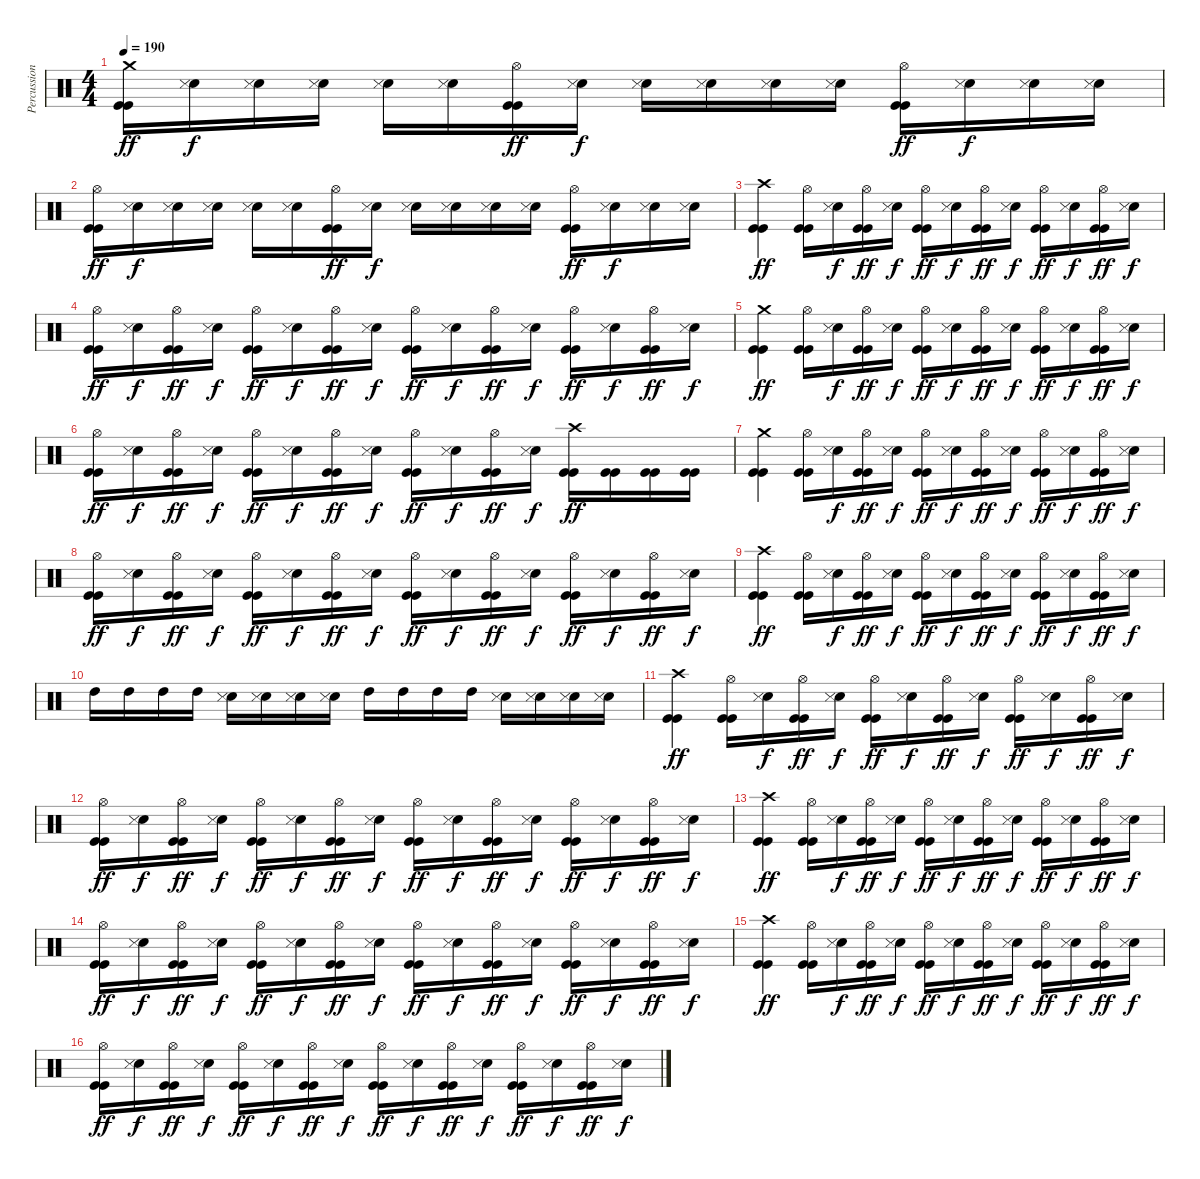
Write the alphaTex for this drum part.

\track ("Percussion" "Percussion") {instrument percussion}
\staff {score}
\articulation defaults
\ts (4 4)
\tempo 190
\clef neutral
\ks c
("Crash medium (hit)" "Kick (hit)" "Kick (hit)").16{dy ff} ("Electric Snare (hit)" "Snare (side stick) 3").16{dy f} ("Electric Snare (hit)" "Snare (side stick) 3").16 ("Electric Snare (hit)" "Snare (side stick) 3").16 ("Electric Snare (hit)" "Snare (side stick) 3").16 ("Electric Snare (hit)" "Snare (side stick) 3").16 ("Hi-Hat (open)" "Kick (hit)" "Kick (hit)").16{dy ff} ("Electric Snare (hit)" "Snare (side stick) 3").16{dy f} ("Electric Snare (hit)" "Snare (side stick) 3").16 ("Electric Snare (hit)" "Snare (side stick) 3").16 ("Electric Snare (hit)" "Snare (side stick) 3").16 ("Electric Snare (hit)" "Snare (side stick) 3").16 ("Hi-Hat (open)" "Kick (hit)" "Kick (hit)").16{dy ff} ("Electric Snare (hit)" "Snare (side stick) 3").16{dy f} ("Electric Snare (hit)" "Snare (side stick) 3").16 ("Electric Snare (hit)" "Snare (side stick) 3").16 |
("Hi-Hat (open)" "Kick (hit)" "Kick (hit)").16{dy ff} ("Electric Snare (hit)" "Snare (side stick) 3").16{dy f} ("Electric Snare (hit)" "Snare (side stick) 3").16 ("Electric Snare (hit)" "Snare (side stick) 3").16 ("Electric Snare (hit)" "Snare (side stick) 3").16 ("Electric Snare (hit)" "Snare (side stick) 3").16 ("Hi-Hat (open)" "Kick (hit)" "Kick (hit)").16{dy ff} ("Electric Snare (hit)" "Snare (side stick) 3").16{dy f} ("Electric Snare (hit)" "Snare (side stick) 3").16 ("Electric Snare (hit)" "Snare (side stick) 3").16 ("Electric Snare (hit)" "Snare (side stick) 3").16 ("Electric Snare (hit)" "Snare (side stick) 3").16 ("Hi-Hat (open)" "Kick (hit)" "Kick (hit)").16{dy ff} ("Electric Snare (hit)" "Snare (side stick) 3").16{dy f} ("Electric Snare (hit)" "Snare (side stick) 3").16 ("Electric Snare (hit)" "Snare (side stick) 3").16 |
("Crash high (hit)" "Kick (hit)" "Kick (hit)").4{dy ff} ("Hi-Hat (open)" "Kick (hit)" "Kick (hit)").16 ("Electric Snare (hit)" "Snare (side stick) 3").16{dy f} ("Hi-Hat (open)" "Kick (hit)" "Kick (hit)").16{dy ff} ("Electric Snare (hit)" "Snare (side stick) 3").16{dy f} ("Hi-Hat (open)" "Kick (hit)" "Kick (hit)").16{dy ff} ("Electric Snare (hit)" "Snare (side stick) 3").16{dy f} ("Hi-Hat (open)" "Kick (hit)" "Kick (hit)").16{dy ff} ("Electric Snare (hit)" "Snare (side stick) 3").16{dy f} ("Hi-Hat (open)" "Kick (hit)" "Kick (hit)").16{dy ff} ("Electric Snare (hit)" "Snare (side stick) 3").16{dy f} ("Hi-Hat (open)" "Kick (hit)" "Kick (hit)").16{dy ff} ("Electric Snare (hit)" "Snare (side stick) 3").16{dy f} |
("Hi-Hat (open)" "Kick (hit)" "Kick (hit)").16{dy ff} ("Electric Snare (hit)" "Snare (side stick) 3").16{dy f} ("Hi-Hat (open)" "Kick (hit)" "Kick (hit)").16{dy ff} ("Electric Snare (hit)" "Snare (side stick) 3").16{dy f} ("Hi-Hat (open)" "Kick (hit)" "Kick (hit)").16{dy ff} ("Electric Snare (hit)" "Snare (side stick) 3").16{dy f} ("Hi-Hat (open)" "Kick (hit)" "Kick (hit)").16{dy ff} ("Electric Snare (hit)" "Snare (side stick) 3").16{dy f} ("Hi-Hat (open)" "Kick (hit)" "Kick (hit)").16{dy ff} ("Electric Snare (hit)" "Snare (side stick) 3").16{dy f} ("Hi-Hat (open)" "Kick (hit)" "Kick (hit)").16{dy ff} ("Electric Snare (hit)" "Snare (side stick) 3").16{dy f} ("Hi-Hat (open)" "Kick (hit)" "Kick (hit)").16{dy ff} ("Electric Snare (hit)" "Snare (side stick) 3").16{dy f} ("Hi-Hat (open)" "Kick (hit)" "Kick (hit)").16{dy ff} ("Electric Snare (hit)" "Snare (side stick) 3").16{dy f} |
("Crash medium (hit)" "Kick (hit)" "Kick (hit)").4{dy ff} ("Hi-Hat (open)" "Kick (hit)" "Kick (hit)").16 ("Electric Snare (hit)" "Snare (side stick) 3").16{dy f} ("Hi-Hat (open)" "Kick (hit)" "Kick (hit)").16{dy ff} ("Electric Snare (hit)" "Snare (side stick) 3").16{dy f} ("Hi-Hat (open)" "Kick (hit)" "Kick (hit)").16{dy ff} ("Electric Snare (hit)" "Snare (side stick) 3").16{dy f} ("Hi-Hat (open)" "Kick (hit)" "Kick (hit)").16{dy ff} ("Electric Snare (hit)" "Snare (side stick) 3").16{dy f} ("Hi-Hat (open)" "Kick (hit)" "Kick (hit)").16{dy ff} ("Electric Snare (hit)" "Snare (side stick) 3").16{dy f} ("Hi-Hat (open)" "Kick (hit)" "Kick (hit)").16{dy ff} ("Electric Snare (hit)" "Snare (side stick) 3").16{dy f} |
("Hi-Hat (open)" "Kick (hit)" "Kick (hit)").16{dy ff} ("Electric Snare (hit)" "Snare (side stick) 3").16{dy f} ("Hi-Hat (open)" "Kick (hit)" "Kick (hit)").16{dy ff} ("Electric Snare (hit)" "Snare (side stick) 3").16{dy f} ("Hi-Hat (open)" "Kick (hit)" "Kick (hit)").16{dy ff} ("Electric Snare (hit)" "Snare (side stick) 3").16{dy f} ("Hi-Hat (open)" "Kick (hit)" "Kick (hit)").16{dy ff} ("Electric Snare (hit)" "Snare (side stick) 3").16{dy f} ("Hi-Hat (open)" "Kick (hit)" "Kick (hit)").16{dy ff} ("Electric Snare (hit)" "Snare (side stick) 3").16{dy f} ("Hi-Hat (open)" "Kick (hit)" "Kick (hit)").16{dy ff} ("Electric Snare (hit)" "Snare (side stick) 3").16{dy f} ("Crash high (hit)" "Kick (hit)" "Kick (hit)").16{dy ff} ("Kick (hit)" "Kick (hit)").16 ("Kick (hit)" "Kick (hit)").16 ("Kick (hit)" "Kick (hit)").16 |
("Crash medium (hit)" "Kick (hit)" "Kick (hit)").4 ("Hi-Hat (open)" "Kick (hit)" "Kick (hit)").16 ("Electric Snare (hit)" "Snare (side stick) 3").16{dy f} ("Hi-Hat (open)" "Kick (hit)" "Kick (hit)").16{dy ff} ("Electric Snare (hit)" "Snare (side stick) 3").16{dy f} ("Hi-Hat (open)" "Kick (hit)" "Kick (hit)").16{dy ff} ("Electric Snare (hit)" "Snare (side stick) 3").16{dy f} ("Hi-Hat (open)" "Kick (hit)" "Kick (hit)").16{dy ff} ("Electric Snare (hit)" "Snare (side stick) 3").16{dy f} ("Hi-Hat (open)" "Kick (hit)" "Kick (hit)").16{dy ff} ("Electric Snare (hit)" "Snare (side stick) 3").16{dy f} ("Hi-Hat (open)" "Kick (hit)" "Kick (hit)").16{dy ff} ("Electric Snare (hit)" "Snare (side stick) 3").16{dy f} |
("Hi-Hat (open)" "Kick (hit)" "Kick (hit)").16{dy ff} ("Electric Snare (hit)" "Snare (side stick) 3").16{dy f} ("Hi-Hat (open)" "Kick (hit)" "Kick (hit)").16{dy ff} ("Electric Snare (hit)" "Snare (side stick) 3").16{dy f} ("Hi-Hat (open)" "Kick (hit)" "Kick (hit)").16{dy ff} ("Electric Snare (hit)" "Snare (side stick) 3").16{dy f} ("Hi-Hat (open)" "Kick (hit)" "Kick (hit)").16{dy ff} ("Electric Snare (hit)" "Snare (side stick) 3").16{dy f} ("Hi-Hat (open)" "Kick (hit)" "Kick (hit)").16{dy ff} ("Electric Snare (hit)" "Snare (side stick) 3").16{dy f} ("Hi-Hat (open)" "Kick (hit)" "Kick (hit)").16{dy ff} ("Electric Snare (hit)" "Snare (side stick) 3").16{dy f} ("Hi-Hat (open)" "Kick (hit)" "Kick (hit)").16{dy ff} ("Electric Snare (hit)" "Snare (side stick) 3").16{dy f} ("Hi-Hat (open)" "Kick (hit)" "Kick (hit)").16{dy ff} ("Electric Snare (hit)" "Snare (side stick) 3").16{dy f} |
("Crash high (hit)" "Kick (hit)" "Kick (hit)").4{dy ff} ("Hi-Hat (open)" "Kick (hit)" "Kick (hit)").16 ("Electric Snare (hit)" "Snare (side stick) 3").16{dy f} ("Hi-Hat (open)" "Kick (hit)" "Kick (hit)").16{dy ff} ("Electric Snare (hit)" "Snare (side stick) 3").16{dy f} ("Hi-Hat (open)" "Kick (hit)" "Kick (hit)").16{dy ff} ("Electric Snare (hit)" "Snare (side stick) 3").16{dy f} ("Hi-Hat (open)" "Kick (hit)" "Kick (hit)").16{dy ff} ("Electric Snare (hit)" "Snare (side stick) 3").16{dy f} ("Hi-Hat (open)" "Kick (hit)" "Kick (hit)").16{dy ff} ("Electric Snare (hit)" "Snare (side stick) 3").16{dy f} ("Hi-Hat (open)" "Kick (hit)" "Kick (hit)").16{dy ff} ("Electric Snare (hit)" "Snare (side stick) 3").16{dy f} |
"High Tom (hit)".16 "High Tom (hit)".16 "High Tom (hit)".16 "High Tom (hit)".16 ("Electric Snare (hit)" "Snare (side stick) 3").16 ("Electric Snare (hit)" "Snare (side stick) 3").16 ("Electric Snare (hit)" "Snare (side stick) 3").16 ("Electric Snare (hit)" "Snare (side stick) 3").16 "High Tom (hit)".16 "High Tom (hit)".16 "High Tom (hit)".16 "High Tom (hit)".16 ("Electric Snare (hit)" "Snare (side stick) 3").16 ("Electric Snare (hit)" "Snare (side stick) 3").16 ("Electric Snare (hit)" "Snare (side stick) 3").16 ("Electric Snare (hit)" "Snare (side stick) 3").16 |
("Crash high (hit)" "Kick (hit)" "Kick (hit)").4{dy ff} ("Hi-Hat (open)" "Kick (hit)" "Kick (hit)").16 ("Electric Snare (hit)" "Snare (side stick) 3").16{dy f} ("Hi-Hat (open)" "Kick (hit)" "Kick (hit)").16{dy ff} ("Electric Snare (hit)" "Snare (side stick) 3").16{dy f} ("Hi-Hat (open)" "Kick (hit)" "Kick (hit)").16{dy ff} ("Electric Snare (hit)" "Snare (side stick) 3").16{dy f} ("Hi-Hat (open)" "Kick (hit)" "Kick (hit)").16{dy ff} ("Electric Snare (hit)" "Snare (side stick) 3").16{dy f} ("Hi-Hat (open)" "Kick (hit)" "Kick (hit)").16{dy ff} ("Electric Snare (hit)" "Snare (side stick) 3").16{dy f} ("Hi-Hat (open)" "Kick (hit)" "Kick (hit)").16{dy ff} ("Electric Snare (hit)" "Snare (side stick) 3").16{dy f} |
("Hi-Hat (open)" "Kick (hit)" "Kick (hit)").16{dy ff} ("Electric Snare (hit)" "Snare (side stick) 3").16{dy f} ("Hi-Hat (open)" "Kick (hit)" "Kick (hit)").16{dy ff} ("Electric Snare (hit)" "Snare (side stick) 3").16{dy f} ("Hi-Hat (open)" "Kick (hit)" "Kick (hit)").16{dy ff} ("Electric Snare (hit)" "Snare (side stick) 3").16{dy f} ("Hi-Hat (open)" "Kick (hit)" "Kick (hit)").16{dy ff} ("Electric Snare (hit)" "Snare (side stick) 3").16{dy f} ("Hi-Hat (open)" "Kick (hit)" "Kick (hit)").16{dy ff} ("Electric Snare (hit)" "Snare (side stick) 3").16{dy f} ("Hi-Hat (open)" "Kick (hit)" "Kick (hit)").16{dy ff} ("Electric Snare (hit)" "Snare (side stick) 3").16{dy f} ("Hi-Hat (open)" "Kick (hit)" "Kick (hit)").16{dy ff} ("Electric Snare (hit)" "Snare (side stick) 3").16{dy f} ("Hi-Hat (open)" "Kick (hit)" "Kick (hit)").16{dy ff} ("Electric Snare (hit)" "Snare (side stick) 3").16{dy f} |
("Crash high (hit)" "Kick (hit)" "Kick (hit)").4{dy ff} ("Hi-Hat (open)" "Kick (hit)" "Kick (hit)").16 ("Electric Snare (hit)" "Snare (side stick) 3").16{dy f} ("Hi-Hat (open)" "Kick (hit)" "Kick (hit)").16{dy ff} ("Electric Snare (hit)" "Snare (side stick) 3").16{dy f} ("Hi-Hat (open)" "Kick (hit)" "Kick (hit)").16{dy ff} ("Electric Snare (hit)" "Snare (side stick) 3").16{dy f} ("Hi-Hat (open)" "Kick (hit)" "Kick (hit)").16{dy ff} ("Electric Snare (hit)" "Snare (side stick) 3").16{dy f} ("Hi-Hat (open)" "Kick (hit)" "Kick (hit)").16{dy ff} ("Electric Snare (hit)" "Snare (side stick) 3").16{dy f} ("Hi-Hat (open)" "Kick (hit)" "Kick (hit)").16{dy ff} ("Electric Snare (hit)" "Snare (side stick) 3").16{dy f} |
("Hi-Hat (open)" "Kick (hit)" "Kick (hit)").16{dy ff} ("Electric Snare (hit)" "Snare (side stick) 3").16{dy f} ("Hi-Hat (open)" "Kick (hit)" "Kick (hit)").16{dy ff} ("Electric Snare (hit)" "Snare (side stick) 3").16{dy f} ("Hi-Hat (open)" "Kick (hit)" "Kick (hit)").16{dy ff} ("Electric Snare (hit)" "Snare (side stick) 3").16{dy f} ("Hi-Hat (open)" "Kick (hit)" "Kick (hit)").16{dy ff} ("Electric Snare (hit)" "Snare (side stick) 3").16{dy f} ("Hi-Hat (open)" "Kick (hit)" "Kick (hit)").16{dy ff} ("Electric Snare (hit)" "Snare (side stick) 3").16{dy f} ("Hi-Hat (open)" "Kick (hit)" "Kick (hit)").16{dy ff} ("Electric Snare (hit)" "Snare (side stick) 3").16{dy f} ("Hi-Hat (open)" "Kick (hit)" "Kick (hit)").16{dy ff} ("Electric Snare (hit)" "Snare (side stick) 3").16{dy f} ("Hi-Hat (open)" "Kick (hit)" "Kick (hit)").16{dy ff} ("Electric Snare (hit)" "Snare (side stick) 3").16{dy f} |
("Crash high (hit)" "Kick (hit)" "Kick (hit)").4{dy ff} ("Hi-Hat (open)" "Kick (hit)" "Kick (hit)").16 ("Electric Snare (hit)" "Snare (side stick) 3").16{dy f} ("Hi-Hat (open)" "Kick (hit)" "Kick (hit)").16{dy ff} ("Electric Snare (hit)" "Snare (side stick) 3").16{dy f} ("Hi-Hat (open)" "Kick (hit)" "Kick (hit)").16{dy ff} ("Electric Snare (hit)" "Snare (side stick) 3").16{dy f} ("Hi-Hat (open)" "Kick (hit)" "Kick (hit)").16{dy ff} ("Electric Snare (hit)" "Snare (side stick) 3").16{dy f} ("Hi-Hat (open)" "Kick (hit)" "Kick (hit)").16{dy ff} ("Electric Snare (hit)" "Snare (side stick) 3").16{dy f} ("Hi-Hat (open)" "Kick (hit)" "Kick (hit)").16{dy ff} ("Electric Snare (hit)" "Snare (side stick) 3").16{dy f} |
("Hi-Hat (open)" "Kick (hit)" "Kick (hit)").16{dy ff} ("Electric Snare (hit)" "Snare (side stick) 3").16{dy f} ("Hi-Hat (open)" "Kick (hit)" "Kick (hit)").16{dy ff} ("Electric Snare (hit)" "Snare (side stick) 3").16{dy f} ("Hi-Hat (open)" "Kick (hit)" "Kick (hit)").16{dy ff} ("Electric Snare (hit)" "Snare (side stick) 3").16{dy f} ("Hi-Hat (open)" "Kick (hit)" "Kick (hit)").16{dy ff} ("Electric Snare (hit)" "Snare (side stick) 3").16{dy f} ("Hi-Hat (open)" "Kick (hit)" "Kick (hit)").16{dy ff} ("Electric Snare (hit)" "Snare (side stick) 3").16{dy f} ("Hi-Hat (open)" "Kick (hit)" "Kick (hit)").16{dy ff} ("Electric Snare (hit)" "Snare (side stick) 3").16{dy f} ("Hi-Hat (open)" "Kick (hit)" "Kick (hit)").16{dy ff} ("Electric Snare (hit)" "Snare (side stick) 3").16{dy f} ("Hi-Hat (open)" "Kick (hit)" "Kick (hit)").16{dy ff} ("Electric Snare (hit)" "Snare (side stick) 3").16{dy f}
